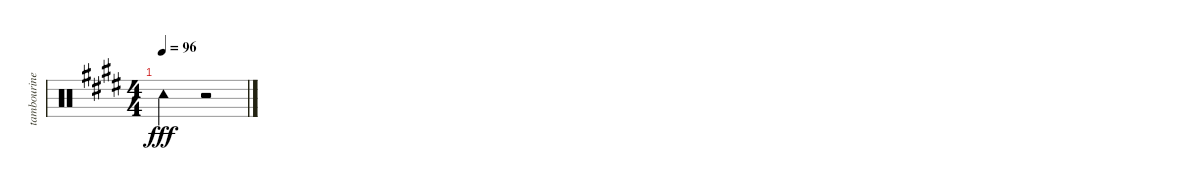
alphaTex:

\track ("tambourine" "tambourine") {instrument percussion}
\staff {score}
\articulation defaults
\ts (4 4)
\tempo 96
\clef neutral
\ks e "Tambourine (hit)".2{dy fff}
r.2
